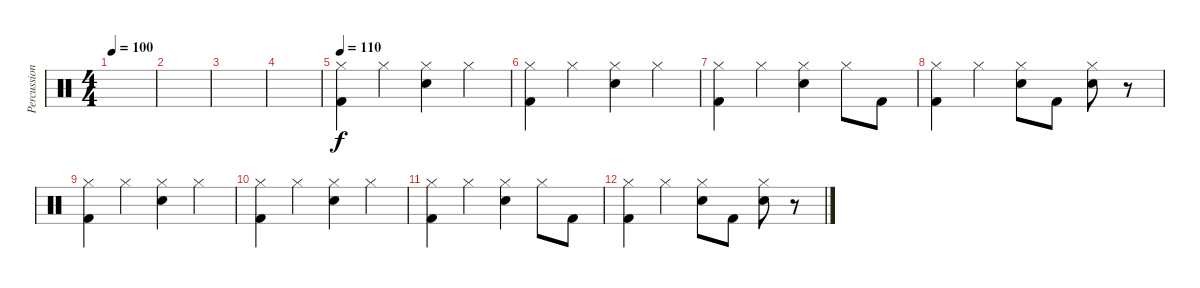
\track ("Percussion" "Percussion") {instrument percussion}
\staff {score}
\articulation defaults
\ts (4 4)
\tempo 100
\clef neutral
\ks c
|
|
|
|
\tempo 110
("Kick (hit) 2" "Hi-Hat (closed)").4 "Hi-Hat (closed)".4 ("Snare (hit) 2" "Hi-Hat (closed)").4 "Hi-Hat (closed)".4 |
("Kick (hit) 2" "Hi-Hat (closed)").4 "Hi-Hat (closed)".4 ("Snare (hit) 2" "Hi-Hat (closed)").4 "Hi-Hat (closed)".4 |
("Kick (hit) 2" "Hi-Hat (closed)").4 "Hi-Hat (closed)".4 ("Snare (hit) 2" "Hi-Hat (closed)").4 "Hi-Hat (closed)".8 "Kick (hit) 2".8 |
("Kick (hit) 2" "Hi-Hat (closed)").4 "Hi-Hat (closed)".4 ("Snare (hit) 2" "Hi-Hat (closed)").8 "Kick (hit) 2".8 ("Snare (hit) 2" "Hi-Hat (closed)").8 r.8 |
("Kick (hit) 2" "Hi-Hat (closed)").4 "Hi-Hat (closed)".4 ("Snare (hit) 2" "Hi-Hat (closed)").4 "Hi-Hat (closed)".4 |
("Kick (hit) 2" "Hi-Hat (closed)").4 "Hi-Hat (closed)".4 ("Snare (hit) 2" "Hi-Hat (closed)").4 "Hi-Hat (closed)".4 |
("Kick (hit) 2" "Hi-Hat (closed)").4 "Hi-Hat (closed)".4 ("Snare (hit) 2" "Hi-Hat (closed)").4 "Hi-Hat (closed)".8 "Kick (hit) 2".8 |
("Kick (hit) 2" "Hi-Hat (closed)").4 "Hi-Hat (closed)".4 ("Snare (hit) 2" "Hi-Hat (closed)").8 "Kick (hit) 2".8 ("Snare (hit) 2" "Hi-Hat (closed)").8 r.8
